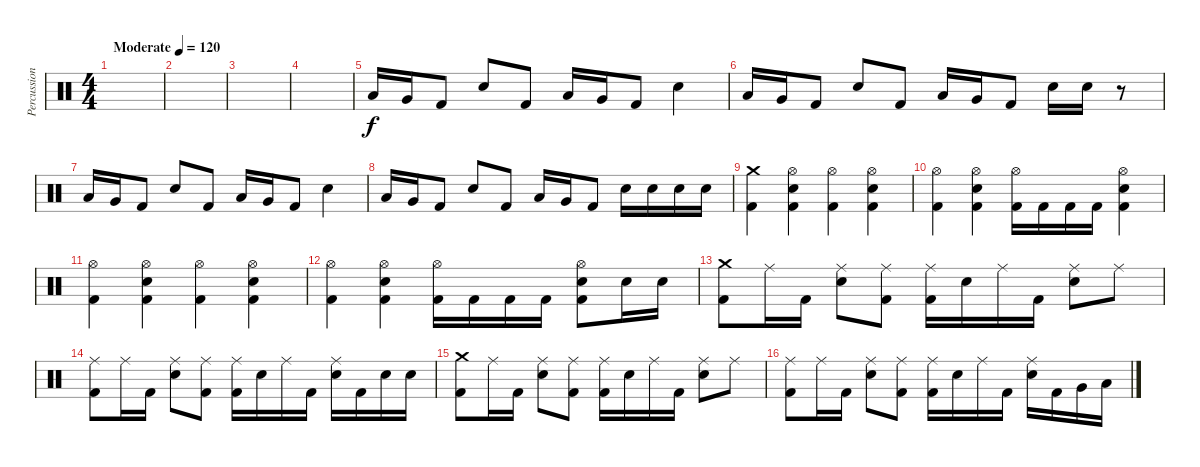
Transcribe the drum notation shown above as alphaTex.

\track ("Percussion" "Percussion") {instrument percussion}
\staff {score}
\articulation defaults
\ts (4 4)
\tempo (120 "Moderate")
\clef neutral
\ks c
|
|
|
|
"Low Floor Tom (hit)".16 "Very Low Tom (hit)".16 "Kick (hit) 2".8 "Snare (hit) 2".8 "Kick (hit) 2".8 "Low Floor Tom (hit)".16 "Very Low Tom (hit)".16 "Kick (hit) 2".8 "Snare (hit) 2".4 |
"Low Floor Tom (hit)".16 "Very Low Tom (hit)".16 "Kick (hit) 2".8 "Snare (hit) 2".8 "Kick (hit) 2".8 "Low Floor Tom (hit)".16 "Very Low Tom (hit)".16 "Kick (hit) 2".8 "Snare (hit) 2".16 "Snare (hit) 2".16 r.8 |
"Low Floor Tom (hit)".16 "Very Low Tom (hit)".16 "Kick (hit) 2".8 "Snare (hit) 2".8 "Kick (hit) 2".8 "Low Floor Tom (hit)".16 "Very Low Tom (hit)".16 "Kick (hit) 2".8 "Snare (hit) 2".4 |
"Low Floor Tom (hit)".16 "Very Low Tom (hit)".16 "Kick (hit) 2".8 "Snare (hit) 2".8 "Kick (hit) 2".8 "Low Floor Tom (hit)".16 "Very Low Tom (hit)".16 "Kick (hit) 2".8 "Snare (hit) 2".16 "Snare (hit) 2".16 "Snare (hit) 2".16 "Snare (hit) 2".16 |
("Crash medium (hit)" "Kick (hit) 2").4 ("Hi-Hat (open)" "Snare (hit) 2" "Kick (hit) 2").4 ("Hi-Hat (open)" "Kick (hit) 2").4 ("Hi-Hat (open)" "Snare (hit) 2" "Kick (hit) 2").4 |
("Hi-Hat (open)" "Kick (hit) 2").4 ("Hi-Hat (open)" "Snare (hit) 2" "Kick (hit) 2").4 ("Hi-Hat (open)" "Kick (hit) 2").16 "Kick (hit) 2".16 "Kick (hit) 2".16 "Kick (hit) 2".16 ("Hi-Hat (open)" "Snare (hit) 2" "Kick (hit) 2").4 |
("Hi-Hat (open)" "Kick (hit) 2").4 ("Hi-Hat (open)" "Snare (hit) 2" "Kick (hit) 2").4 ("Hi-Hat (open)" "Kick (hit) 2").4 ("Hi-Hat (open)" "Snare (hit) 2" "Kick (hit) 2").4 |
("Hi-Hat (open)" "Kick (hit) 2").4 ("Hi-Hat (open)" "Snare (hit) 2" "Kick (hit) 2").4 ("Hi-Hat (open)" "Kick (hit) 2").16 "Kick (hit) 2".16 "Kick (hit) 2".16 "Kick (hit) 2".16 ("Hi-Hat (open)" "Snare (hit) 2" "Kick (hit) 2").8 "Snare (hit) 2".16 "Snare (hit) 2".16 |
("Crash medium (hit)" "Kick (hit) 2").8 "Ride (middle)".16 "Kick (hit) 2".16 ("Ride (middle)" "Snare (hit) 2").8 ("Ride (middle)" "Kick (hit) 2").8 ("Ride (middle)" "Kick (hit) 2").16 "Snare (hit) 2".16 "Ride (middle)".16 "Kick (hit) 2".16 ("Ride (middle)" "Snare (hit) 2").8 "Ride (middle)".8 |
("Ride (middle)" "Kick (hit) 2").8 "Ride (middle)".16 "Kick (hit) 2".16 ("Ride (middle)" "Snare (hit) 2").8 ("Ride (middle)" "Kick (hit) 2").8 ("Ride (middle)" "Kick (hit) 2").16 "Snare (hit) 2".16 "Ride (middle)".16 "Kick (hit) 2".16 ("Ride (middle)" "Snare (hit) 2").16 "Kick (hit) 2".16 "Snare (hit) 2".16 "Snare (hit) 2".16 |
("Crash medium (hit)" "Kick (hit) 2").8 "Ride (middle)".16 "Kick (hit) 2".16 ("Ride (middle)" "Snare (hit) 2").8 ("Ride (middle)" "Kick (hit) 2").8 ("Ride (middle)" "Kick (hit) 2").16 "Snare (hit) 2".16 "Ride (middle)".16 "Kick (hit) 2".16 ("Ride (middle)" "Snare (hit) 2").8 "Ride (middle)".8 |
("Ride (middle)" "Kick (hit) 2").8 "Ride (middle)".16 "Kick (hit) 2".16 ("Ride (middle)" "Snare (hit) 2").8 ("Ride (middle)" "Kick (hit) 2").8 ("Ride (middle)" "Kick (hit) 2").16 "Snare (hit) 2".16 "Ride (middle)".16 "Kick (hit) 2".16 ("Ride (middle)" "Snare (hit) 2").16 "Kick (hit) 2".16 "Very Low Tom (hit)".16 "Low Tom (hit)".16
